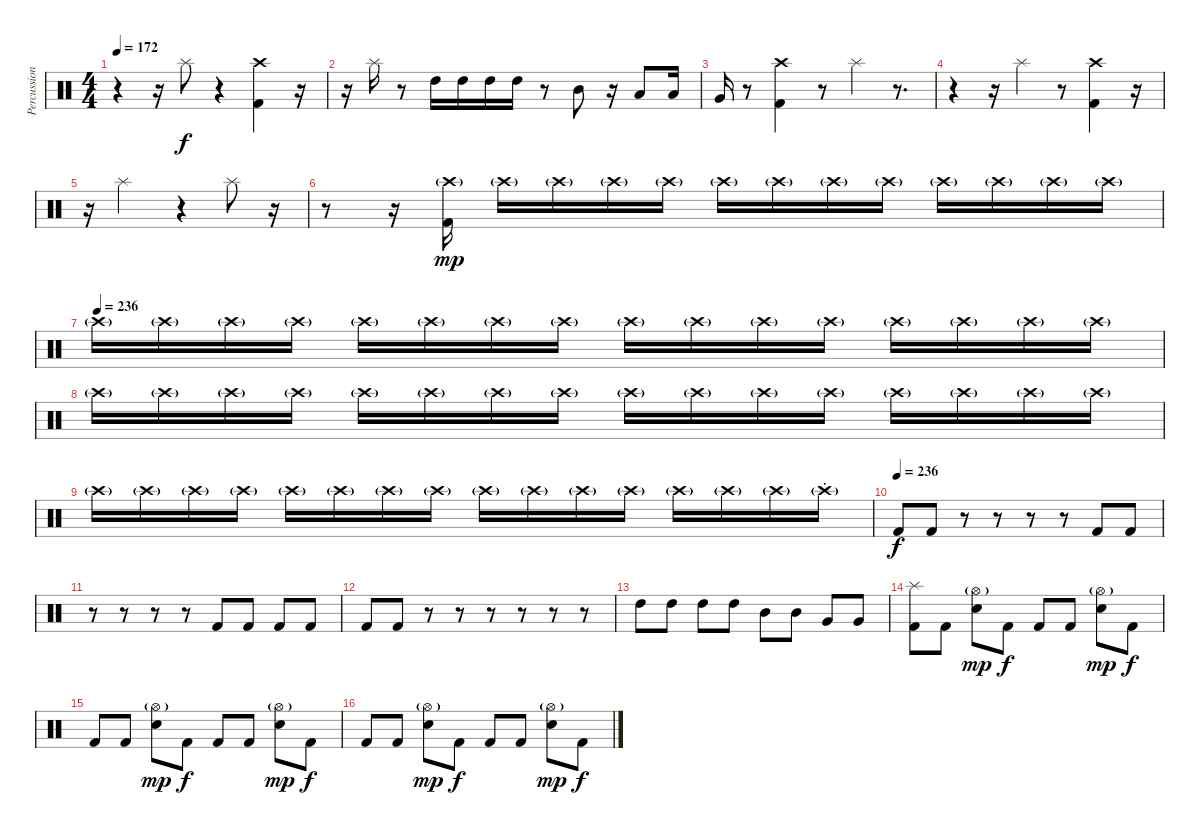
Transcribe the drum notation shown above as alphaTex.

\track ("Percussion" "Percussion") {instrument percussion}
\staff {score}
\articulation defaults
\ts (4 4)
\tempo 172
\clef neutral
\ks c
r.4{dy f} r.16 "Splash (hit)".8 r.4 ("Crash high (hit)" "Kick (hit) 2").4 r.16 |
r.16 "Splash (hit)".16 r.8 "High Tom (hit)".16 "High Tom (hit)".16 "High Tom (hit)".16 "High Tom (hit)".16 r.8 "Mid Tom (hit)".8 r.16 "Low Tom (hit)".8 "Low Tom (hit)".16 |
"Very Low Tom (hit)".16 r.8 ("Crash high (hit)" "Kick (hit) 2").4 r.8 "Splash (hit)".4 r.8{d} |
r.4 r.16 "Splash (hit)".4 r.8 ("Crash high (hit)" "Kick (hit) 2").4 r.16 |
r.16 "Splash (hit)".2 r.4 "Splash (hit)".8 r.16 |
r.8 r.16 ("Crash high (hit)"{g} "Kick (hit) 2").16{dy mp} "Crash high (hit)"{g}.16 "Crash high (hit)"{g}.16 "Crash high (hit)"{g}.16 "Crash high (hit)"{g}.16 "Crash high (hit)"{g}.16 "Crash high (hit)"{g}.16 "Crash high (hit)"{g}.16 "Crash high (hit)"{g}.16 "Crash high (hit)"{g}.16 "Crash high (hit)"{g}.16 "Crash high (hit)"{g}.16 "Crash high (hit)"{g}.16 |
\tempo (236)
"Crash high (hit)"{g}.16 "Crash high (hit)"{g}.16 "Crash high (hit)"{g}.16 "Crash high (hit)"{g}.16 "Crash high (hit)"{g}.16 "Crash high (hit)"{g}.16 "Crash high (hit)"{g}.16 "Crash high (hit)"{g}.16 "Crash high (hit)"{g}.16 "Crash high (hit)"{g}.16 "Crash high (hit)"{g}.16 "Crash high (hit)"{g}.16 "Crash high (hit)"{g}.16 "Crash high (hit)"{g}.16 "Crash high (hit)"{g}.16 "Crash high (hit)"{g}.16 |
"Crash high (hit)"{g}.16 "Crash high (hit)"{g}.16 "Crash high (hit)"{g}.16 "Crash high (hit)"{g}.16 "Crash high (hit)"{g}.16 "Crash high (hit)"{g}.16 "Crash high (hit)"{g}.16 "Crash high (hit)"{g}.16 "Crash high (hit)"{g}.16 "Crash high (hit)"{g}.16 "Crash high (hit)"{g}.16 "Crash high (hit)"{g}.16 "Crash high (hit)"{g}.16 "Crash high (hit)"{g}.16 "Crash high (hit)"{g}.16 "Crash high (hit)"{g}.16 |
"Crash high (hit)"{g}.16 "Crash high (hit)"{g}.16 "Crash high (hit)"{g}.16 "Crash high (hit)"{g}.16 "Crash high (hit)"{g}.16 "Crash high (hit)"{g}.16 "Crash high (hit)"{g}.16 "Crash high (hit)"{g}.16 "Crash high (hit)"{g}.16 "Crash high (hit)"{g}.16 "Crash high (hit)"{g}.16 "Crash high (hit)"{g}.16 "Crash high (hit)"{g}.16 "Crash high (hit)"{g}.16 "Crash high (hit)"{g}.16 "Crash high (hit)"{g st}.16 |
\tempo (236)
"Kick (hit) 2".8{dy f} "Kick (hit) 2".8 r.8 r.8 r.8 r.8 "Kick (hit) 2".8 "Kick (hit) 2".8 |
r.8 r.8 r.8 r.8 "Kick (hit) 2".8 "Kick (hit) 2".8 "Kick (hit) 2".8 "Kick (hit) 2".8 |
"Kick (hit) 2".8 "Kick (hit) 2".8 r.8 r.8 r.8 r.8 r.8 r.8 |
"High Tom (hit)".8 "High Tom (hit)".8 "High Tom (hit)".8 "High Tom (hit)".8 "Mid Tom (hit)".8 "Mid Tom (hit)".8 "Very Low Tom (hit)".8 "Very Low Tom (hit)".8 |
("Splash (hit)" "Kick (hit) 2").8 "Kick (hit) 2".8 ("Hi-Hat (open)"{g} "Electric Snare (hit)").8{dy mp} "Kick (hit) 2".8{dy f} "Kick (hit) 2".8 "Kick (hit) 2".8 ("Hi-Hat (open)"{g} "Electric Snare (hit)").8{dy mp} "Kick (hit) 2".8{dy f} |
"Kick (hit) 2".8 "Kick (hit) 2".8 ("Hi-Hat (open)"{g} "Electric Snare (hit)").8{dy mp} "Kick (hit) 2".8{dy f} "Kick (hit) 2".8 "Kick (hit) 2".8 ("Hi-Hat (open)"{g} "Electric Snare (hit)").8{dy mp} "Kick (hit) 2".8{dy f} |
"Kick (hit) 2".8 "Kick (hit) 2".8 ("Hi-Hat (open)"{g} "Electric Snare (hit)").8{dy mp} "Kick (hit) 2".8{dy f} "Kick (hit) 2".8 "Kick (hit) 2".8 ("Hi-Hat (open)"{g} "Electric Snare (hit)").8{dy mp} "Kick (hit) 2".8{dy f}
